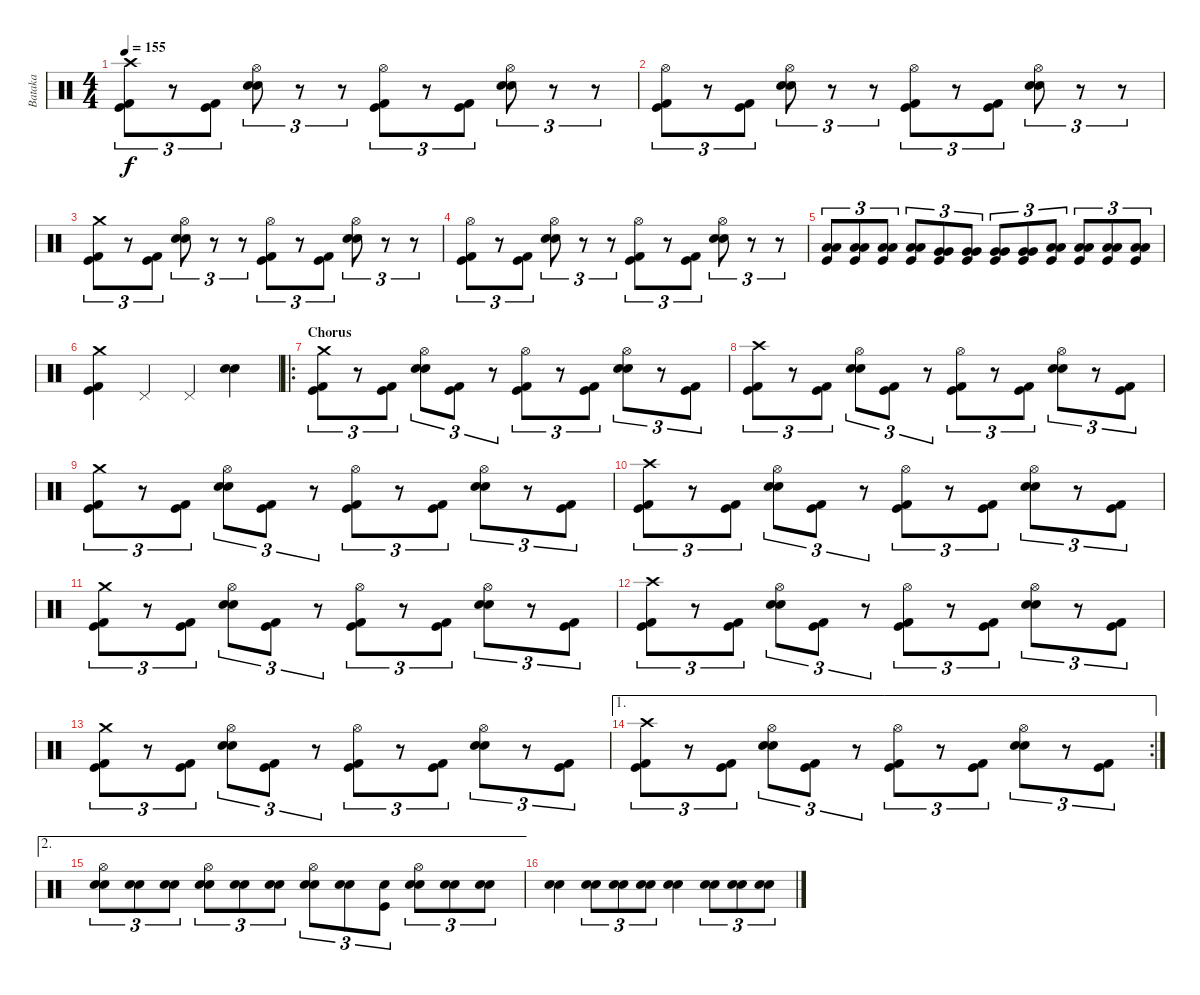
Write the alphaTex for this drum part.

\track ("Bataka" "Bataka") {instrument percussion}
\staff {score}
\articulation defaults
\ts (4 4)
\tempo 155
\clef neutral
\ks c
("Crash high (hit)" "Kick (hit) 2" "Kick (hit)").8{tu (3 2) dy f} r.8{tu (3 2)} ("Kick (hit) 2" "Kick (hit)").8{tu (3 2)} ("Hi-Hat (open)" "Snare (hit) 2" "Snare (hit) 2").8{tu (3 2)} r.8{tu (3 2)} r.8{tu (3 2)} ("Hi-Hat (open)" "Kick (hit) 2" "Kick (hit)").8{tu (3 2)} r.8{tu (3 2)} ("Kick (hit) 2" "Kick (hit)").8{tu (3 2)} ("Hi-Hat (open)" "Snare (hit) 2" "Snare (hit) 2").8{tu (3 2)} r.8{tu (3 2)} r.8{tu (3 2)} |
("Hi-Hat (open)" "Kick (hit) 2" "Kick (hit)").8{tu (3 2)} r.8{tu (3 2)} ("Kick (hit) 2" "Kick (hit)").8{tu (3 2)} ("Hi-Hat (open)" "Snare (hit) 2" "Snare (hit) 2").8{tu (3 2)} r.8{tu (3 2)} r.8{tu (3 2)} ("Hi-Hat (open)" "Kick (hit) 2" "Kick (hit)").8{tu (3 2)} r.8{tu (3 2)} ("Kick (hit) 2" "Kick (hit)").8{tu (3 2)} ("Hi-Hat (open)" "Snare (hit) 2" "Snare (hit) 2").8{tu (3 2)} r.8{tu (3 2)} r.8{tu (3 2)} |
("Crash medium (hit)" "Kick (hit) 2" "Kick (hit)").8{tu (3 2)} r.8{tu (3 2)} ("Kick (hit) 2" "Kick (hit)").8{tu (3 2)} ("Hi-Hat (open)" "Snare (hit) 2" "Snare (hit) 2").8{tu (3 2)} r.8{tu (3 2)} r.8{tu (3 2)} ("Hi-Hat (open)" "Kick (hit) 2" "Kick (hit)").8{tu (3 2)} r.8{tu (3 2)} ("Kick (hit) 2" "Kick (hit)").8{tu (3 2)} ("Hi-Hat (open)" "Snare (hit) 2" "Snare (hit) 2").8{tu (3 2)} r.8{tu (3 2)} r.8{tu (3 2)} |
("Hi-Hat (open)" "Kick (hit) 2" "Kick (hit)").8{tu (3 2)} r.8{tu (3 2)} ("Kick (hit) 2" "Kick (hit)").8{tu (3 2)} ("Hi-Hat (open)" "Snare (hit) 2" "Snare (hit) 2").8{tu (3 2)} r.8{tu (3 2)} r.8{tu (3 2)} ("Hi-Hat (open)" "Kick (hit) 2" "Kick (hit)").8{tu (3 2)} r.8{tu (3 2)} ("Kick (hit) 2" "Kick (hit)").8{tu (3 2)} ("Hi-Hat (open)" "Snare (hit) 2" "Snare (hit) 2").8{tu (3 2)} r.8{tu (3 2)} r.8{tu (3 2)} |
("Low Tom (hit)" "Low Tom (hit)" "Kick (hit)").8{tu (3 2)} ("Low Tom (hit)" "Low Tom (hit)" "Kick (hit)").8{tu (3 2)} ("Low Tom (hit)" "Low Tom (hit)" "Kick (hit)").8{tu (3 2)} ("Low Tom (hit)" "Low Tom (hit)" "Kick (hit)").8{tu (3 2)} ("Very Low Tom (hit)" "Very Low Tom (hit)" "Kick (hit)").8{tu (3 2)} ("Very Low Tom (hit)" "Very Low Tom (hit)" "Kick (hit)").8{tu (3 2)} ("Very Low Tom (hit)" "Very Low Tom (hit)" "Kick (hit)").8{tu (3 2)} ("Very Low Tom (hit)" "Very Low Tom (hit)" "Kick (hit)").8{tu (3 2)} ("Low Floor Tom (hit)" "Low Floor Tom (hit)" "Kick (hit)").8{tu (3 2)} ("Low Floor Tom (hit)" "Low Floor Tom (hit)" "Kick (hit)").8{tu (3 2)} ("Low Floor Tom (hit)" "Low Floor Tom (hit)" "Kick (hit)").8{tu (3 2)} ("Low Floor Tom (hit)" "Low Floor Tom (hit)" "Kick (hit)").8{tu (3 2)} |
("Crash medium (hit)" "Kick (hit) 2" "Kick (hit)").4 "Pedal Hi-Hat (hit)".4 "Pedal Hi-Hat (hit)".4 ("Snare (hit) 2" "Snare (hit) 2").4 |
\ro
\section ("" "Chorus")
("Crash medium (hit)" "Kick (hit) 2" "Kick (hit)").8{tu (3 2)} r.8{tu (3 2)} ("Kick (hit) 2" "Kick (hit)").8{tu (3 2)} ("Hi-Hat (open)" "Snare (hit) 2" "Snare (hit) 2").8{tu (3 2)} ("Kick (hit)" "Kick (hit) 2").8{tu (3 2)} r.8{tu (3 2)} ("Hi-Hat (open)" "Kick (hit) 2" "Kick (hit)").8{tu (3 2)} r.8{tu (3 2)} ("Kick (hit) 2" "Kick (hit)").8{tu (3 2)} ("Hi-Hat (open)" "Snare (hit) 2" "Snare (hit) 2").8{tu (3 2)} r.8{tu (3 2)} ("Kick (hit) 2" "Kick (hit)").8{tu (3 2)} |
("Crash high (hit)" "Kick (hit) 2" "Kick (hit)").8{tu (3 2)} r.8{tu (3 2)} ("Kick (hit) 2" "Kick (hit)").8{tu (3 2)} ("Hi-Hat (open)" "Snare (hit) 2" "Snare (hit) 2").8{tu (3 2)} ("Kick (hit) 2" "Kick (hit)").8{tu (3 2)} r.8{tu (3 2)} ("Hi-Hat (open)" "Kick (hit) 2" "Kick (hit)").8{tu (3 2)} r.8{tu (3 2)} ("Kick (hit) 2" "Kick (hit)").8{tu (3 2)} ("Hi-Hat (open)" "Snare (hit) 2" "Snare (hit) 2").8{tu (3 2)} r.8{tu (3 2)} ("Kick (hit) 2" "Kick (hit)").8{tu (3 2)} |
("Crash medium (hit)" "Kick (hit) 2" "Kick (hit)").8{tu (3 2)} r.8{tu (3 2)} ("Kick (hit) 2" "Kick (hit)").8{tu (3 2)} ("Hi-Hat (open)" "Snare (hit) 2" "Snare (hit) 2").8{tu (3 2)} ("Kick (hit) 2" "Kick (hit)").8{tu (3 2)} r.8{tu (3 2)} ("Hi-Hat (open)" "Kick (hit) 2" "Kick (hit)").8{tu (3 2)} r.8{tu (3 2)} ("Kick (hit) 2" "Kick (hit)").8{tu (3 2)} ("Hi-Hat (open)" "Snare (hit) 2" "Snare (hit) 2").8{tu (3 2)} r.8{tu (3 2)} ("Kick (hit) 2" "Kick (hit)").8{tu (3 2)} |
("Crash high (hit)" "Kick (hit) 2" "Kick (hit)").8{tu (3 2)} r.8{tu (3 2)} ("Kick (hit) 2" "Kick (hit)").8{tu (3 2)} ("Hi-Hat (open)" "Snare (hit) 2" "Snare (hit) 2").8{tu (3 2)} ("Kick (hit) 2" "Kick (hit)").8{tu (3 2)} r.8{tu (3 2)} ("Hi-Hat (open)" "Kick (hit) 2" "Kick (hit)").8{tu (3 2)} r.8{tu (3 2)} ("Kick (hit) 2" "Kick (hit)").8{tu (3 2)} ("Hi-Hat (open)" "Snare (hit) 2" "Snare (hit) 2").8{tu (3 2)} r.8{tu (3 2)} ("Kick (hit) 2" "Kick (hit)").8{tu (3 2)} |
("Crash medium (hit)" "Kick (hit) 2" "Kick (hit)").8{tu (3 2)} r.8{tu (3 2)} ("Kick (hit) 2" "Kick (hit)").8{tu (3 2)} ("Hi-Hat (open)" "Snare (hit) 2" "Snare (hit) 2").8{tu (3 2)} ("Kick (hit) 2" "Kick (hit)").8{tu (3 2)} r.8{tu (3 2)} ("Hi-Hat (open)" "Kick (hit) 2" "Kick (hit)").8{tu (3 2)} r.8{tu (3 2)} ("Kick (hit) 2" "Kick (hit)").8{tu (3 2)} ("Hi-Hat (open)" "Snare (hit) 2" "Snare (hit) 2").8{tu (3 2)} r.8{tu (3 2)} ("Kick (hit) 2" "Kick (hit)").8{tu (3 2)} |
("Crash high (hit)" "Kick (hit) 2" "Kick (hit)").8{tu (3 2)} r.8{tu (3 2)} ("Kick (hit) 2" "Kick (hit)").8{tu (3 2)} ("Hi-Hat (open)" "Snare (hit) 2" "Snare (hit) 2").8{tu (3 2)} ("Kick (hit) 2" "Kick (hit)").8{tu (3 2)} r.8{tu (3 2)} ("Hi-Hat (open)" "Kick (hit) 2" "Kick (hit)").8{tu (3 2)} r.8{tu (3 2)} ("Kick (hit) 2" "Kick (hit)").8{tu (3 2)} ("Hi-Hat (open)" "Snare (hit) 2" "Snare (hit) 2").8{tu (3 2)} r.8{tu (3 2)} ("Kick (hit) 2" "Kick (hit)").8{tu (3 2)} |
("Crash medium (hit)" "Kick (hit) 2" "Kick (hit)").8{tu (3 2)} r.8{tu (3 2)} ("Kick (hit) 2" "Kick (hit)").8{tu (3 2)} ("Hi-Hat (open)" "Snare (hit) 2" "Snare (hit) 2").8{tu (3 2)} ("Kick (hit) 2" "Kick (hit)").8{tu (3 2)} r.8{tu (3 2)} ("Hi-Hat (open)" "Kick (hit) 2" "Kick (hit)").8{tu (3 2)} r.8{tu (3 2)} ("Kick (hit) 2" "Kick (hit)").8{tu (3 2)} ("Hi-Hat (open)" "Snare (hit) 2" "Snare (hit) 2").8{tu (3 2)} r.8{tu (3 2)} ("Kick (hit) 2" "Kick (hit)").8{tu (3 2)} |
\ae 1
\rc 2
("Crash high (hit)" "Kick (hit) 2" "Kick (hit)").8{tu (3 2)} r.8{tu (3 2)} ("Kick (hit) 2" "Kick (hit)").8{tu (3 2)} ("Hi-Hat (open)" "Snare (hit) 2" "Snare (hit) 2").8{tu (3 2)} ("Kick (hit) 2" "Kick (hit)").8{tu (3 2)} r.8{tu (3 2)} ("Hi-Hat (open)" "Kick (hit) 2" "Kick (hit)").8{tu (3 2)} r.8{tu (3 2)} ("Kick (hit) 2" "Kick (hit)").8{tu (3 2)} ("Hi-Hat (open)" "Snare (hit) 2" "Snare (hit) 2").8{tu (3 2)} r.8{tu (3 2)} ("Kick (hit) 2" "Kick (hit)").8{tu (3 2)} |
\ae 2
("Hi-Hat (open)" "Snare (hit) 2" "Snare (hit) 2").8{tu (3 2)} ("Snare (hit) 2" "Snare (hit) 2").8{tu (3 2)} ("Snare (hit) 2" "Snare (hit) 2").8{tu (3 2)} ("Hi-Hat (open)" "Snare (hit) 2" "Snare (hit) 2").8{tu (3 2)} ("Snare (hit) 2" "Snare (hit) 2").8{tu (3 2)} ("Snare (hit) 2" "Snare (hit) 2").8{tu (3 2)} ("Hi-Hat (open)" "Snare (hit) 2" "Snare (hit) 2").8{tu (3 2)} ("Snare (hit) 2" "Snare (hit) 2").8{tu (3 2)} ("Snare (hit) 2" "Kick (hit)").8{tu (3 2)} ("Hi-Hat (open)" "Snare (hit) 2" "Snare (hit) 2").8{tu (3 2)} ("Snare (hit) 2" "Snare (hit) 2").8{tu (3 2)} ("Snare (hit) 2" "Snare (hit) 2").8{tu (3 2)} |
("Snare (hit) 2" "Snare (hit) 2").4 ("Snare (hit) 2" "Snare (hit) 2").8{tu (3 2)} ("Snare (hit) 2" "Snare (hit) 2").8{tu (3 2)} ("Snare (hit) 2" "Snare (hit) 2").8{tu (3 2)} ("Snare (hit) 2" "Snare (hit) 2").4 ("Snare (hit) 2" "Snare (hit) 2").8{tu (3 2)} ("Snare (hit) 2" "Snare (hit) 2").8{tu (3 2)} ("Snare (hit) 2" "Snare (hit) 2").8{tu (3 2)}
